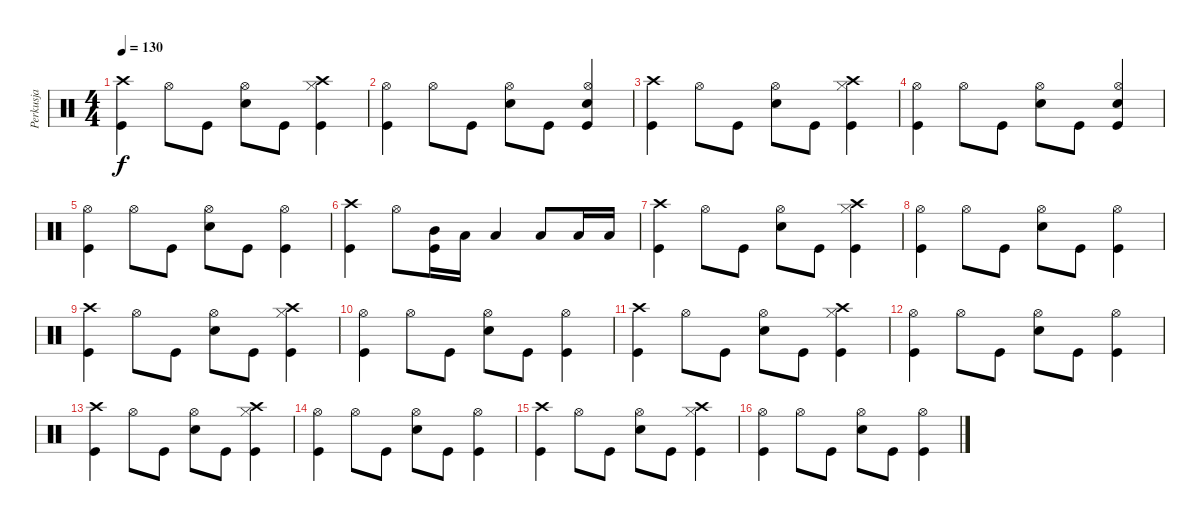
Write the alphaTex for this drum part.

\track ("Perkusja" "Perkusja") {instrument percussion}
\staff {score}
\articulation defaults
\ts (4 4)
\tempo 130
\clef neutral
\ks c
("Crash high (hit)" "Kick (hit)").4{dy f} "Hi-Hat (open)".8 "Kick (hit)".8 ("Hi-Hat (open)" "Electric Snare (hit)").8 "Kick (hit)".8 ("Crash high (hit)" "Hi-Hat (closed)" "Kick (hit)").4 |
("Hi-Hat (open)" "Kick (hit)").4 "Hi-Hat (open)".8 "Kick (hit)".8 ("Hi-Hat (open)" "Electric Snare (hit)").8 "Kick (hit)".8 ("Hi-Hat (open)" "Electric Snare (hit)" "Kick (hit)").4 |
("Crash high (hit)" "Kick (hit)").4 "Hi-Hat (open)".8 "Kick (hit)".8 ("Hi-Hat (open)" "Electric Snare (hit)").8 "Kick (hit)".8 ("Crash high (hit)" "Hi-Hat (closed)" "Kick (hit)").4 |
("Hi-Hat (open)" "Kick (hit)").4 "Hi-Hat (open)".8 "Kick (hit)".8 ("Hi-Hat (open)" "Electric Snare (hit)").8 "Kick (hit)".8 ("Hi-Hat (open)" "Electric Snare (hit)" "Kick (hit)").4 |
("Hi-Hat (open)" "Kick (hit)").4 "Hi-Hat (open)".8 "Kick (hit)".8 ("Hi-Hat (open)" "Electric Snare (hit)").8 "Kick (hit)".8 ("Hi-Hat (open)" "Kick (hit)").4 |
("Crash high (hit)" "Kick (hit)").4 "Hi-Hat (open)".8 ("Mid Tom (hit)" "Kick (hit)").16 "Low Tom (hit)".16 "Low Tom (hit)".4 "Low Tom (hit)".8 "Low Tom (hit)".16 "Low Tom (hit)".16 |
("Crash high (hit)" "Kick (hit)").4 "Hi-Hat (open)".8 "Kick (hit)".8 ("Hi-Hat (open)" "Electric Snare (hit)").8 "Kick (hit)".8 ("Crash high (hit)" "Hi-Hat (closed)" "Kick (hit)").4 |
("Hi-Hat (open)" "Kick (hit)").4 "Hi-Hat (open)".8 "Kick (hit)".8 ("Hi-Hat (open)" "Electric Snare (hit)").8 "Kick (hit)".8 ("Hi-Hat (open)" "Kick (hit)").4 |
("Crash high (hit)" "Kick (hit)").4 "Hi-Hat (open)".8 "Kick (hit)".8 ("Hi-Hat (open)" "Electric Snare (hit)").8 "Kick (hit)".8 ("Crash high (hit)" "Hi-Hat (closed)" "Kick (hit)").4 |
("Hi-Hat (open)" "Kick (hit)").4 "Hi-Hat (open)".8 "Kick (hit)".8 ("Hi-Hat (open)" "Electric Snare (hit)").8 "Kick (hit)".8 ("Hi-Hat (open)" "Kick (hit)").4 |
("Crash high (hit)" "Kick (hit)").4 "Hi-Hat (open)".8 "Kick (hit)".8 ("Hi-Hat (open)" "Electric Snare (hit)").8 "Kick (hit)".8 ("Crash high (hit)" "Hi-Hat (closed)" "Kick (hit)").4 |
("Hi-Hat (open)" "Kick (hit)").4 "Hi-Hat (open)".8 "Kick (hit)".8 ("Hi-Hat (open)" "Electric Snare (hit)").8 "Kick (hit)".8 ("Hi-Hat (open)" "Kick (hit)").4 |
("Crash high (hit)" "Kick (hit)").4 "Hi-Hat (open)".8 "Kick (hit)".8 ("Hi-Hat (open)" "Electric Snare (hit)").8 "Kick (hit)".8 ("Crash high (hit)" "Hi-Hat (closed)" "Kick (hit)").4 |
("Hi-Hat (open)" "Kick (hit)").4 "Hi-Hat (open)".8 "Kick (hit)".8 ("Hi-Hat (open)" "Electric Snare (hit)").8 "Kick (hit)".8 ("Hi-Hat (open)" "Kick (hit)").4 |
("Crash high (hit)" "Kick (hit)").4 "Hi-Hat (open)".8 "Kick (hit)".8 ("Hi-Hat (open)" "Electric Snare (hit)").8 "Kick (hit)".8 ("Crash high (hit)" "Hi-Hat (closed)" "Kick (hit)").4 |
("Hi-Hat (open)" "Kick (hit)").4 "Hi-Hat (open)".8 "Kick (hit)".8 ("Hi-Hat (open)" "Electric Snare (hit)").8 "Kick (hit)".8 ("Hi-Hat (open)" "Kick (hit)").4
